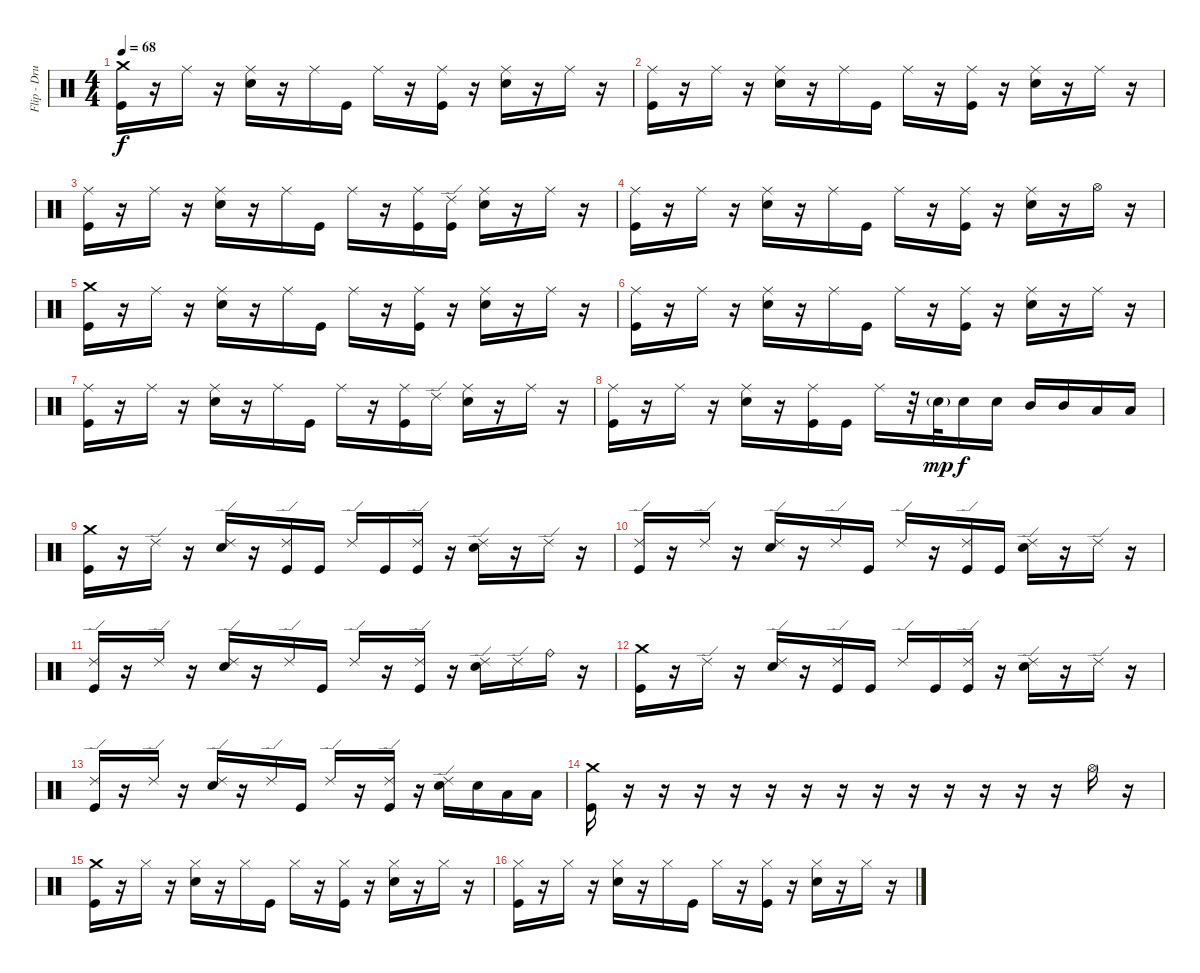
\track ("Flip - Drums" "Flip - Dru") {instrument percussion}
\staff {score}
\articulation defaults
\ts (4 4)
\tempo 68
\clef neutral
\ks c
("Crash medium (hit)" "Kick (hit)").16{dy f} r.16 "Ride (middle)".16 r.16 ("Ride (middle)" "Snare (hit) 2").16 r.16 "Ride (middle)".16 "Kick (hit)".16 "Ride (middle)".16 r.16 ("Ride (middle)" "Kick (hit)").16 r.16 ("Ride (middle)" "Snare (hit) 2").16 r.16 "Ride (middle)".16 r.16 |
("Ride (middle)" "Kick (hit)").16 r.16 "Ride (middle)".16 r.16 ("Ride (middle)" "Snare (hit) 2").16 r.16 "Ride (middle)".16 "Kick (hit)".16 "Ride (middle)".16 r.16 ("Ride (middle)" "Kick (hit)").16 r.16 ("Ride (middle)" "Snare (hit) 2").16 r.16 "Ride (middle)".16 r.16 |
("Ride (middle)" "Kick (hit)").16 r.16 "Ride (middle)".16 r.16 ("Ride (middle)" "Snare (hit) 2").16 r.16 "Ride (middle)".16 "Kick (hit)".16 "Ride (middle)".16 r.16 ("Ride (middle)" "Kick (hit)").16 ("Ride (edge) 2" "Kick (hit)").16 ("Ride (middle)" "Snare (hit) 2").16 r.16 "Ride (middle)".16 r.16 |
("Ride (middle)" "Kick (hit)").16 r.16 "Ride (middle)".16 r.16 ("Ride (middle)" "Snare (hit) 2").16 r.16 "Ride (middle)".16 "Kick (hit)".16 "Ride (middle)".16 r.16 ("Ride (middle)" "Kick (hit)").16 r.16 ("Ride (middle)" "Snare (hit) 2").16 r.16 "Hi-Hat (open)".16 r.16 |
("Crash medium (hit)" "Kick (hit)").16 r.16 "Ride (middle)".16 r.16 ("Ride (middle)" "Snare (hit) 2").16 r.16 "Ride (middle)".16 "Kick (hit)".16 "Ride (middle)".16 r.16 ("Ride (middle)" "Kick (hit)").16 r.16 ("Ride (middle)" "Snare (hit) 2").16 r.16 "Ride (middle)".16 r.16 |
("Ride (middle)" "Kick (hit)").16 r.16 "Ride (middle)".16 r.16 ("Ride (middle)" "Snare (hit) 2").16 r.16 "Ride (middle)".16 "Kick (hit)".16 "Ride (middle)".16 r.16 ("Ride (middle)" "Kick (hit)").16 r.16 ("Ride (middle)" "Snare (hit) 2").16 r.16 "Ride (middle)".16 r.16 |
("Ride (middle)" "Kick (hit)").16 r.16 "Ride (middle)".16 r.16 ("Ride (middle)" "Snare (hit) 2").16 r.16 "Ride (middle)".16 "Kick (hit)".16 "Ride (middle)".16 r.16 ("Ride (middle)" "Kick (hit)").16 "Ride (edge) 2".16 ("Ride (middle)" "Snare (hit) 2").16 r.16 "Ride (middle)".16 r.16 |
("Ride (middle)" "Kick (hit)").16 r.16 "Ride (middle)".16 r.16 ("Ride (middle)" "Snare (hit) 2").16 r.16 ("Ride (middle)" "Kick (hit)").16 "Kick (hit)".16 "Ride (middle)".16 r.32 "Snare (hit) 2"{g}.32{dy mp} "Snare (hit) 2".16{dy f} "Snare (hit) 2".16 "Mid Tom (hit)".16 "Mid Tom (hit)".16 "Low Tom (hit)".16 "Low Tom (hit)".16 |
("Crash medium (hit)" "Kick (hit)").16 r.16 "Ride (edge) 2".16 r.16 ("Ride (edge) 2" "Snare (hit) 2").16 r.16 ("Ride (edge) 2" "Kick (hit)").16 "Kick (hit)".16 "Ride (edge) 2".16 "Kick (hit)".16 ("Ride (edge) 2" "Kick (hit)").16 r.16 ("Ride (edge) 2" "Snare (hit) 2").16 r.16 "Ride (edge) 2".16 r.16 |
("Ride (edge) 2" "Kick (hit)").16 r.16 "Ride (edge) 2".16 r.16 ("Ride (edge) 2" "Snare (hit) 2").16 r.16 "Ride (edge) 2".16 "Kick (hit)".16 "Ride (edge) 2".16 r.16 ("Ride (edge) 2" "Kick (hit)").16 "Kick (hit)".16 ("Ride (edge) 2" "Snare (hit) 2").16 r.16 "Ride (edge) 2".16 r.16 |
("Ride (edge) 2" "Kick (hit)").16 r.16 "Ride (edge) 2".16 r.16 ("Ride (edge) 2" "Snare (hit) 2").16 r.16 "Ride (edge) 2".16 "Kick (hit)".16 "Ride (edge) 2".16 r.16 ("Ride (edge) 2" "Kick (hit)").16 r.16 ("Ride (edge) 2" "Snare (hit) 2").16 "Ride (edge) 2".16 "Ride (bell)".16 r.16 |
("Crash medium (hit)" "Kick (hit)").16 r.16 "Ride (edge) 2".16 r.16 ("Ride (edge) 2" "Snare (hit) 2").16 r.16 ("Ride (edge) 2" "Kick (hit)").16 "Kick (hit)".16 "Ride (edge) 2".16 "Kick (hit)".16 ("Ride (edge) 2" "Kick (hit)").16 r.16 ("Ride (edge) 2" "Snare (hit) 2").16 r.16 "Ride (edge) 2".16 r.16 |
("Ride (edge) 2" "Kick (hit)").16 r.16 "Ride (edge) 2".16 r.16 ("Ride (edge) 2" "Snare (hit) 2").16 r.16 "Ride (edge) 2".16 "Kick (hit)".16 "Ride (edge) 2".16 r.16 ("Ride (edge) 2" "Kick (hit)").16 r.16 ("Ride (edge) 2" "Snare (hit) 2").16 "Snare (hit) 2".16 "Low Tom (hit)".16 "Low Tom (hit)".16 |
("Crash medium (hit)" "Kick (hit)").16 r.16 r.16 r.16 r.16 r.16 r.16 r.16 r.16 r.16 r.16 r.16 r.16 r.16 "Hi-Hat (open)".16 r.16 |
("Crash medium (hit)" "Kick (hit)").16 r.16 "Hi-Hat (closed)".16 r.16 ("Hi-Hat (closed)" "Snare (hit) 2").16 r.16 "Hi-Hat (closed)".16 "Kick (hit)".16 "Hi-Hat (closed)".16 r.16 ("Hi-Hat (closed)" "Kick (hit)").16 r.16 ("Hi-Hat (closed)" "Snare (hit) 2").16 r.16 "Hi-Hat (closed)".16 r.16 |
("Hi-Hat (closed)" "Kick (hit)").16 r.16 "Hi-Hat (closed)".16 r.16 ("Hi-Hat (closed)" "Snare (hit) 2").16 r.16 "Hi-Hat (closed)".16 "Kick (hit)".16 "Hi-Hat (closed)".16 r.16 ("Hi-Hat (closed)" "Kick (hit)").16 r.16 ("Hi-Hat (closed)" "Snare (hit) 2").16 r.16 "Hi-Hat (closed)".16 r.16
